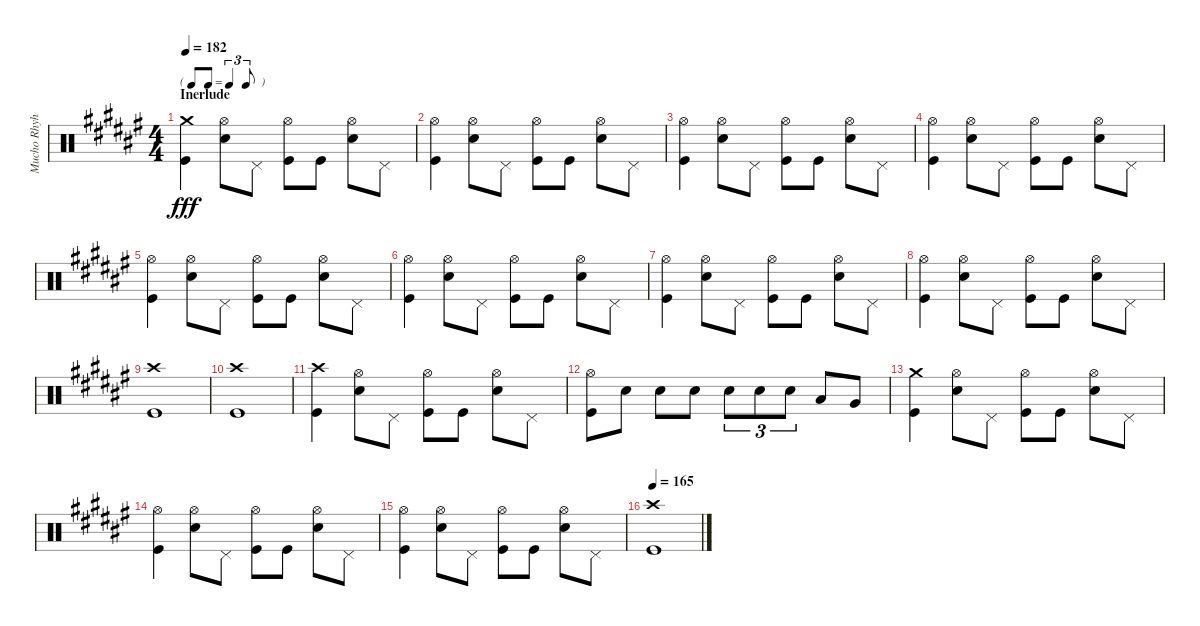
\track ("Mucho Rhyhtm" "Mucho Rhyh") {instrument percussion}
\staff {score}
\articulation defaults
\ts (4 4)
\tf triplet8th
\section ("" "Inerlude")
\tempo 182
\clef neutral
\ks f#
("Crash medium (hit)" "Kick (hit)").4{dy fff} ("Hi-Hat (open)" "Snare (hit) 2").8 "Pedal Hi-Hat (hit)".8 ("Hi-Hat (open)" "Kick (hit)").8 "Kick (hit)".8 ("Hi-Hat (open)" "Snare (hit) 2").8 "Pedal Hi-Hat (hit)".8 |
("Hi-Hat (open)" "Kick (hit)").4 ("Hi-Hat (open)" "Snare (hit) 2").8 "Pedal Hi-Hat (hit)".8 ("Hi-Hat (open)" "Kick (hit)").8 "Kick (hit)".8 ("Hi-Hat (open)" "Snare (hit) 2").8 "Pedal Hi-Hat (hit)".8 |
("Hi-Hat (open)" "Kick (hit)").4 ("Hi-Hat (open)" "Snare (hit) 2").8 "Pedal Hi-Hat (hit)".8 ("Hi-Hat (open)" "Kick (hit)").8 "Kick (hit)".8 ("Hi-Hat (open)" "Snare (hit) 2").8 "Pedal Hi-Hat (hit)".8 |
("Hi-Hat (open)" "Kick (hit)").4 ("Hi-Hat (open)" "Snare (hit) 2").8 "Pedal Hi-Hat (hit)".8 ("Hi-Hat (open)" "Kick (hit)").8 "Kick (hit)".8 ("Hi-Hat (open)" "Snare (hit) 2").8 "Pedal Hi-Hat (hit)".8 |
("Hi-Hat (open)" "Kick (hit)").4 ("Hi-Hat (open)" "Snare (hit) 2").8 "Pedal Hi-Hat (hit)".8 ("Hi-Hat (open)" "Kick (hit)").8 "Kick (hit)".8 ("Hi-Hat (open)" "Snare (hit) 2").8 "Pedal Hi-Hat (hit)".8 |
("Hi-Hat (open)" "Kick (hit)").4 ("Hi-Hat (open)" "Snare (hit) 2").8 "Pedal Hi-Hat (hit)".8 ("Hi-Hat (open)" "Kick (hit)").8 "Kick (hit)".8 ("Hi-Hat (open)" "Snare (hit) 2").8 "Pedal Hi-Hat (hit)".8 |
("Hi-Hat (open)" "Kick (hit)").4 ("Hi-Hat (open)" "Snare (hit) 2").8 "Pedal Hi-Hat (hit)".8 ("Hi-Hat (open)" "Kick (hit)").8 "Kick (hit)".8 ("Hi-Hat (open)" "Snare (hit) 2").8 "Pedal Hi-Hat (hit)".8 |
("Hi-Hat (open)" "Kick (hit)").4 ("Hi-Hat (open)" "Snare (hit) 2").8 "Pedal Hi-Hat (hit)".8 ("Hi-Hat (open)" "Kick (hit)").8 "Kick (hit)".8 ("Hi-Hat (open)" "Snare (hit) 2").8 "Pedal Hi-Hat (hit)".8 |
("Crash high (hit)" "Kick (hit)").1 |
("Crash high (hit)" "Kick (hit)").1 |
("Crash high (hit)" "Kick (hit)").4 ("Hi-Hat (open)" "Snare (hit) 2").8 "Pedal Hi-Hat (hit)".8 ("Hi-Hat (open)" "Kick (hit)").8 "Kick (hit)".8 ("Hi-Hat (open)" "Snare (hit) 2").8 "Pedal Hi-Hat (hit)".8 |
("Hi-Hat (open)" "Kick (hit)").8 "Snare (hit) 2".8 "Snare (hit) 2".8 "Snare (hit) 2".8 "Snare (hit) 2".8{tu (3 2)} "Snare (hit) 2".8{tu (3 2)} "Snare (hit) 2".8{tu (3 2)} "Low Tom (hit)".8 "Very Low Tom (hit)".8 |
("Crash medium (hit)" "Kick (hit)").4 ("Hi-Hat (open)" "Snare (hit) 2").8 "Pedal Hi-Hat (hit)".8 ("Hi-Hat (open)" "Kick (hit)").8 "Kick (hit)".8 ("Hi-Hat (open)" "Snare (hit) 2").8 "Pedal Hi-Hat (hit)".8 |
("Hi-Hat (open)" "Kick (hit)").4 ("Hi-Hat (open)" "Snare (hit) 2").8 "Pedal Hi-Hat (hit)".8 ("Hi-Hat (open)" "Kick (hit)").8 "Kick (hit)".8 ("Hi-Hat (open)" "Snare (hit) 2").8 "Pedal Hi-Hat (hit)".8 |
("Hi-Hat (open)" "Kick (hit)").4 ("Hi-Hat (open)" "Snare (hit) 2").8 "Pedal Hi-Hat (hit)".8 ("Hi-Hat (open)" "Kick (hit)").8 "Kick (hit)".8 ("Hi-Hat (open)" "Snare (hit) 2").8 "Pedal Hi-Hat (hit)".8 |
\tempo 165
("Crash high (hit)" "Kick (hit)").1
